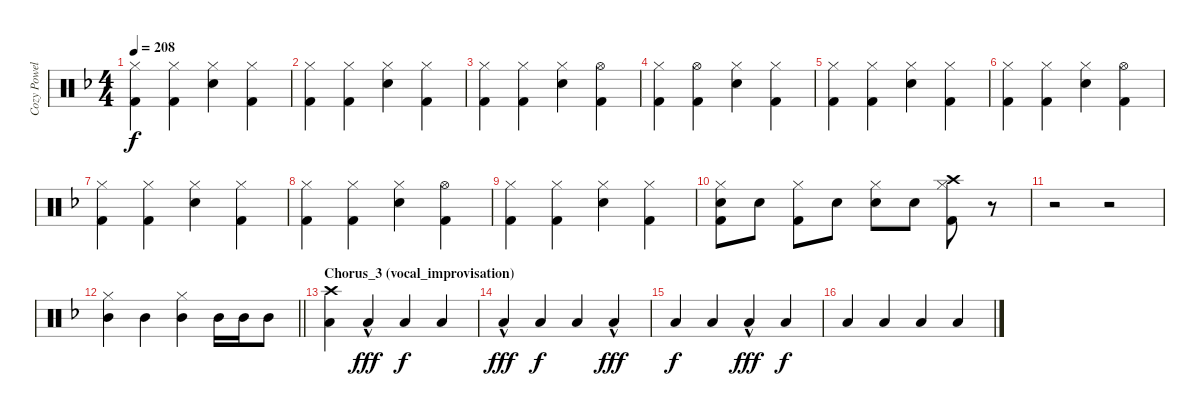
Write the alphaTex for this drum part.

\track ("Cozy Powell" "Cozy Powel") {instrument percussion}
\staff {score}
\articulation defaults
\ts (4 4)
\tempo 208
\clef neutral
\ks f
("Hi-Hat (closed)" "Kick (hit) 2").4{dy f} ("Hi-Hat (closed)" "Kick (hit) 2").4 ("Hi-Hat (closed)" "Snare (hit) 2").4 ("Hi-Hat (closed)" "Kick (hit) 2").4 |
("Hi-Hat (closed)" "Kick (hit) 2").4 ("Hi-Hat (closed)" "Kick (hit) 2").4 ("Hi-Hat (closed)" "Snare (hit) 2").4 ("Hi-Hat (closed)" "Kick (hit) 2").4 |
("Hi-Hat (closed)" "Kick (hit) 2").4 ("Hi-Hat (closed)" "Kick (hit) 2").4 ("Hi-Hat (closed)" "Snare (hit) 2").4 ("Hi-Hat (open)" "Kick (hit) 2").4 |
("Hi-Hat (closed)" "Kick (hit) 2").4 ("Hi-Hat (open)" "Kick (hit) 2").4 ("Hi-Hat (closed)" "Snare (hit) 2").4 ("Hi-Hat (closed)" "Kick (hit) 2").4 |
("Hi-Hat (closed)" "Kick (hit) 2").4 ("Hi-Hat (closed)" "Kick (hit) 2").4 ("Hi-Hat (closed)" "Snare (hit) 2").4 ("Hi-Hat (closed)" "Kick (hit) 2").4 |
("Hi-Hat (closed)" "Kick (hit) 2").4 ("Hi-Hat (closed)" "Kick (hit) 2").4 ("Hi-Hat (closed)" "Snare (hit) 2").4 ("Hi-Hat (open)" "Kick (hit) 2").4 |
("Hi-Hat (closed)" "Kick (hit) 2").4 ("Hi-Hat (closed)" "Kick (hit) 2").4 ("Hi-Hat (closed)" "Snare (hit) 2").4 ("Hi-Hat (closed)" "Kick (hit) 2").4 |
("Hi-Hat (closed)" "Kick (hit) 2").4 ("Hi-Hat (closed)" "Kick (hit) 2").4 ("Hi-Hat (closed)" "Snare (hit) 2").4 ("Hi-Hat (open)" "Kick (hit) 2").4 |
("Hi-Hat (closed)" "Kick (hit) 2").4 ("Hi-Hat (closed)" "Kick (hit) 2").4 ("Hi-Hat (closed)" "Snare (hit) 2").4 ("Hi-Hat (closed)" "Kick (hit) 2").4 |
("Hi-Hat (closed)" "Kick (hit) 2" "Snare (hit) 2").8 "Snare (hit) 2".8 ("Hi-Hat (closed)" "Kick (hit) 2").8 "Snare (hit) 2".8 ("Hi-Hat (closed)" "Snare (hit) 2").8 "Snare (hit) 2".8 ("Hi-Hat (closed)" "Crash high (hit)" "Kick (hit) 2").8 r.8 |
r.2 r.2 |
\barLineRight lightlight
("Hi-Hat (closed)" "Mid Tom (hit)").4 "Mid Tom (hit)".4 ("Hi-Hat (closed)" "Mid Tom (hit)").4 "Mid Tom (hit)".16 "Mid Tom (hit)".16 "Mid Tom (hit)".8 |
\section ("" "Chorus_3 (vocal_improvisation)")
("Low Tom (hit)" "Crash high (hit)").4 "Low Tom (hit)"{hac}.4{dy fff} "Low Tom (hit)".4{dy f} "Low Tom (hit)".4 |
"Low Tom (hit)"{hac}.4{dy fff} "Low Tom (hit)".4{dy f} "Low Tom (hit)".4 "Low Tom (hit)"{hac}.4{dy fff} |
"Low Tom (hit)".4{dy f} "Low Tom (hit)".4 "Low Tom (hit)"{hac}.4{dy fff} "Low Tom (hit)".4{dy f} |
"Low Tom (hit)".4 "Low Tom (hit)".4 "Low Tom (hit)".4 "Low Tom (hit)".4
